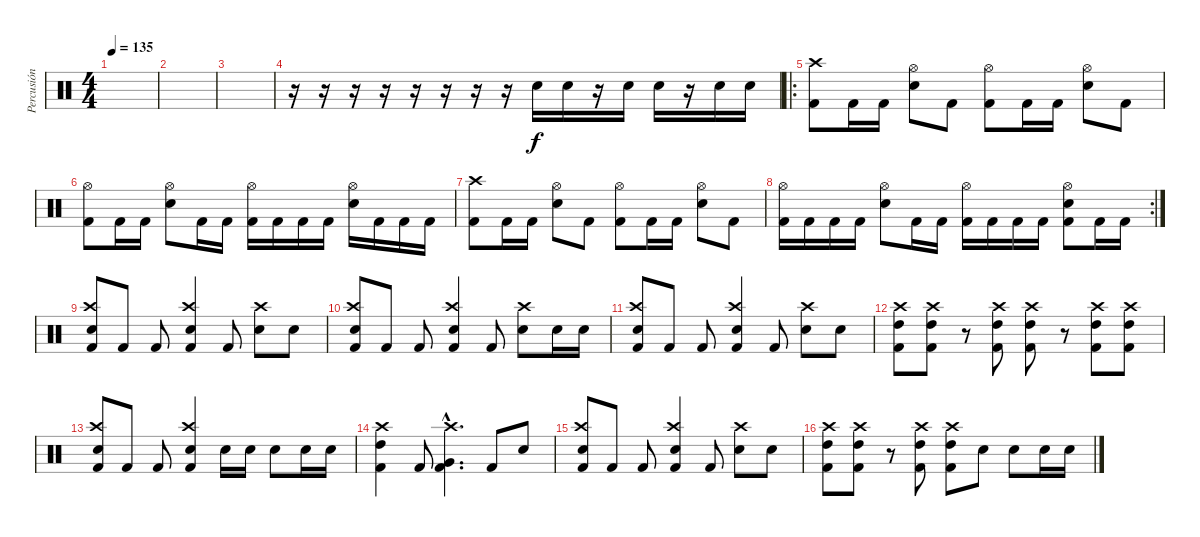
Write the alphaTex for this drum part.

\track ("Percusión" "Percusión") {instrument percussion}
\staff {score}
\articulation defaults
\ts (4 4)
\tempo 135
\clef neutral
\ks c
|
|
|
r.16 r.16 r.16 r.16 r.16 r.16 r.16 r.16 "Electric Snare (hit)".16 "Electric Snare (hit)".16 r.16 "Electric Snare (hit)".16 "Electric Snare (hit)".16 r.16 "Electric Snare (hit)".16 "Electric Snare (hit)".16 |
\ro
("Crash high (hit)" "Kick (hit) 2").8 "Kick (hit) 2".16 "Kick (hit) 2".16 ("Hi-Hat (open)" "Electric Snare (hit)").8 "Kick (hit) 2".8 ("Hi-Hat (open)" "Kick (hit) 2").8 "Kick (hit) 2".16 "Kick (hit) 2".16 ("Hi-Hat (open)" "Electric Snare (hit)").8 "Kick (hit) 2".8 |
("Hi-Hat (open)" "Kick (hit) 2").8 "Kick (hit) 2".16 "Kick (hit) 2".16 ("Hi-Hat (open)" "Electric Snare (hit)").8 "Kick (hit) 2".16 "Kick (hit) 2".16 ("Hi-Hat (open)" "Kick (hit) 2").16 "Kick (hit) 2".16 "Kick (hit) 2".16 "Kick (hit) 2".16 ("Hi-Hat (open)" "Electric Snare (hit)").16 "Kick (hit) 2".16 "Kick (hit) 2".16 "Kick (hit) 2".16 |
("Crash high (hit)" "Kick (hit) 2").8 "Kick (hit) 2".16 "Kick (hit) 2".16 ("Hi-Hat (open)" "Electric Snare (hit)").8 "Kick (hit) 2".8 ("Hi-Hat (open)" "Kick (hit) 2").8 "Kick (hit) 2".16 "Kick (hit) 2".16 ("Hi-Hat (open)" "Electric Snare (hit)").8 "Kick (hit) 2".8 |
\rc 2
("Hi-Hat (open)" "Kick (hit) 2").16 "Kick (hit) 2".16 "Kick (hit) 2".16 "Kick (hit) 2".16 ("Hi-Hat (open)" "Electric Snare (hit)").8 "Kick (hit) 2".16 "Kick (hit) 2".16 ("Hi-Hat (open)" "Kick (hit) 2").16 "Kick (hit) 2".16 "Kick (hit) 2".16 "Kick (hit) 2".16 ("Hi-Hat (open)" "Electric Snare (hit)" "Kick (hit) 2").8 "Kick (hit) 2".16 "Kick (hit) 2".16 |
("Crash high (hit)" "Electric Snare (hit)" "Kick (hit) 2").8 "Kick (hit) 2".8 "Kick (hit) 2".8 ("Crash high (hit)" "Electric Snare (hit)" "Kick (hit) 2").4 "Kick (hit) 2".8 ("Crash high (hit)" "Electric Snare (hit)").8 "Electric Snare (hit)".8 |
("Crash high (hit)" "Electric Snare (hit)" "Kick (hit) 2").8 "Kick (hit) 2".8 "Kick (hit) 2".8 ("Crash high (hit)" "Electric Snare (hit)" "Kick (hit) 2").4 "Kick (hit) 2".8 ("Crash high (hit)" "Electric Snare (hit)").8 "Electric Snare (hit)".16 "Electric Snare (hit)".16 |
("Crash high (hit)" "Electric Snare (hit)" "Kick (hit) 2").8 "Kick (hit) 2".8 "Kick (hit) 2".8 ("Crash high (hit)" "Electric Snare (hit)" "Kick (hit) 2").4 "Kick (hit) 2".8 ("Crash high (hit)" "Electric Snare (hit)").8 "Electric Snare (hit)".8 |
("Crash high (hit)" "High Tom (hit)" "Kick (hit) 2").8 ("Crash high (hit)" "High Tom (hit)" "Kick (hit) 2").8 r.8 ("Crash high (hit)" "High Tom (hit)" "Kick (hit) 2").8 ("Crash high (hit)" "High Tom (hit)" "Kick (hit) 2").8 r.8 ("Crash high (hit)" "High Tom (hit)" "Kick (hit) 2").8 ("Crash high (hit)" "High Tom (hit)" "Kick (hit) 2").8 |
("Crash high (hit)" "Electric Snare (hit)" "Kick (hit) 2").8 "Kick (hit) 2".8 "Kick (hit) 2".8 ("Crash high (hit)" "Electric Snare (hit)" "Kick (hit) 2").4 "Electric Snare (hit)".16 "Electric Snare (hit)".16 "Electric Snare (hit)".8 "Electric Snare (hit)".16 "Electric Snare (hit)".16 |
("Crash high (hit)" "High Tom (hit)" "Kick (hit) 2").4 "Kick (hit) 2".8 ("Crash high (hit)"{hac} "Very Low Tom (hit)"{hac} "Kick (hit) 2"{hac}).4{d} "Kick (hit) 2".8 "Electric Snare (hit)".8 |
("Crash high (hit)" "Electric Snare (hit)" "Kick (hit) 2").8 "Kick (hit) 2".8 "Kick (hit) 2".8 ("Crash high (hit)" "Electric Snare (hit)" "Kick (hit) 2").4 "Kick (hit) 2".8 ("Crash high (hit)" "Electric Snare (hit)").8 "Electric Snare (hit)".8 |
("Crash high (hit)" "High Tom (hit)" "Kick (hit) 2").8 ("Crash high (hit)" "High Tom (hit)" "Kick (hit) 2").8 r.8 ("Crash high (hit)" "High Tom (hit)" "Kick (hit) 2").8 ("Crash high (hit)" "High Tom (hit)" "Kick (hit) 2").8 "Electric Snare (hit)".8 "Electric Snare (hit)".8 "Electric Snare (hit)".16 "Electric Snare (hit)".16
